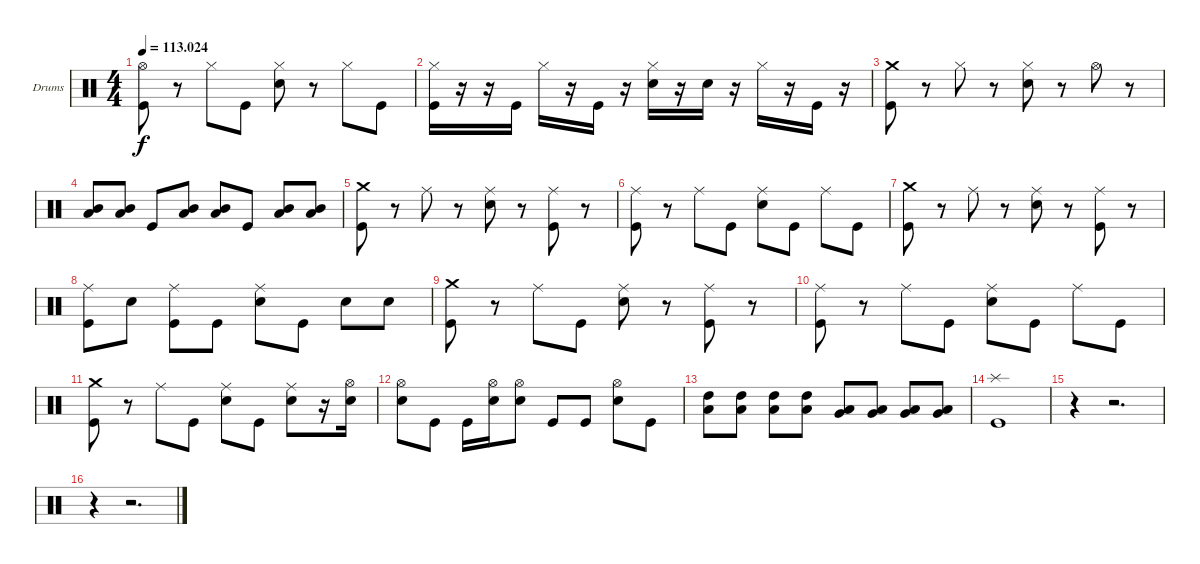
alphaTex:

\bracketExtendMode groupsimilarinstruments
\firstSystemTrackNameOrientation horizontal
\otherSystemsTrackNameOrientation horizontal
\track ("Ударные (Кривенков Д)" "Drums") {instrument percussion}
\staff {score}
\articulation defaults
\ts (4 4)
\tempo
113.024
\accidentals auto
\clef neutral
\ottava regular
\simile none
\ks c
("Hi-Hat (open)" "Kick (hit)").8{dy f} r.8 "Hi-Hat (closed)".8 "Kick (hit)".8 ("Hi-Hat (closed)" "Snare (hit) 2").8 r.8 "Hi-Hat (closed)".8 "Kick (hit)".8 |
("Hi-Hat (closed)" "Kick (hit)").16 r.16 r.16 "Kick (hit)".16 "Hi-Hat (closed)".16 r.16 "Kick (hit)".16 r.16 ("Hi-Hat (closed)" "Snare (hit) 2").16 r.16 "Snare (hit) 2".16 r.16 "Hi-Hat (closed)".16 r.16 "Kick (hit)".16 r.16 |
("Crash medium (hit)" "Kick (hit)").8 r.8 "Hi-Hat (closed)".8 r.8 ("Hi-Hat (closed)" "Snare (hit) 2").8 r.8 "Hi-Hat (open)".8 r.8 |
("Mid Tom (hit)" "Low Tom (hit)").8 ("Mid Tom (hit)" "Low Tom (hit)").8 "Kick (hit)".8 ("Mid Tom (hit)" "Low Tom (hit)").8 ("Mid Tom (hit)" "Low Tom (hit)").8 "Kick (hit)".8 ("Mid Tom (hit)" "Low Tom (hit)").8 ("Mid Tom (hit)" "Low Tom (hit)").8 |
("Crash medium (hit)" "Kick (hit)").8 r.8 "Ride (middle)".8 r.8 ("Ride (middle)" "Snare (hit) 2").8 r.8 ("Ride (middle)" "Kick (hit)").8 r.8 |
("Ride (middle)" "Kick (hit)").8 r.8 "Ride (middle)".8 "Kick (hit)".8 ("Ride (middle)" "Snare (hit) 2").8 "Kick (hit)".8 "Ride (middle)".8 "Kick (hit)".8 |
("Crash medium (hit)" "Kick (hit)").8 r.8 "Ride (middle)".8 r.8 ("Ride (middle)" "Snare (hit) 2").8 r.8 ("Ride (middle)" "Kick (hit)").8 r.8 |
("Ride (middle)" "Kick (hit)").8 "Snare (hit) 2".8 ("Ride (middle)" "Kick (hit)").8 "Kick (hit)".8 ("Ride (middle)" "Snare (hit) 2").8 "Kick (hit)".8 "Snare (hit) 2".8 "Snare (hit) 2".8 |
("Crash medium (hit)" "Kick (hit)").8 r.8 "Ride (middle)".8 "Kick (hit)".8 ("Ride (middle)" "Snare (hit) 2").8 r.8 ("Ride (middle)" "Kick (hit)").8 r.8 |
("Ride (middle)" "Kick (hit)").8 r.8 "Ride (middle)".8 "Kick (hit)".8 ("Ride (middle)" "Snare (hit) 2").8 "Kick (hit)".8 "Ride (middle)".8 "Kick (hit)".8 |
("Crash medium (hit)" "Kick (hit)").8 r.8 "Ride (middle)".8 "Kick (hit)".8 ("Ride (middle)" "Snare (hit) 2").8 "Kick (hit)".8 ("Ride (middle)" "Snare (hit) 2").8 r.16 ("Hi-Hat (open)" "Snare (hit) 2").16 |
("Hi-Hat (open)" "Snare (hit) 2").8 "Kick (hit)".8 "Kick (hit)".16 ("Hi-Hat (open)" "Snare (hit) 2").16 ("Hi-Hat (open)" "Snare (hit) 2").8 "Kick (hit)".8 "Kick (hit)".8 ("Hi-Hat (open)" "Snare (hit) 2").8 "Kick (hit)".8 |
("High Tom (hit)" "Low Tom (hit)").8 ("High Tom (hit)" "Low Tom (hit)").8 ("High Tom (hit)" "Low Tom (hit)").8 ("High Tom (hit)" "Low Tom (hit)").8 ("Low Tom (hit)" "Very Low Tom (hit)").8 ("Low Tom (hit)" "Very Low Tom (hit)").8 ("Low Tom (hit)" "Very Low Tom (hit)").8 ("Low Tom (hit)" "Very Low Tom (hit)").8 |
("Splash (hit)" "Kick (hit)").1 |
r.4 r.2{d} |
r.4 r.2{d}
